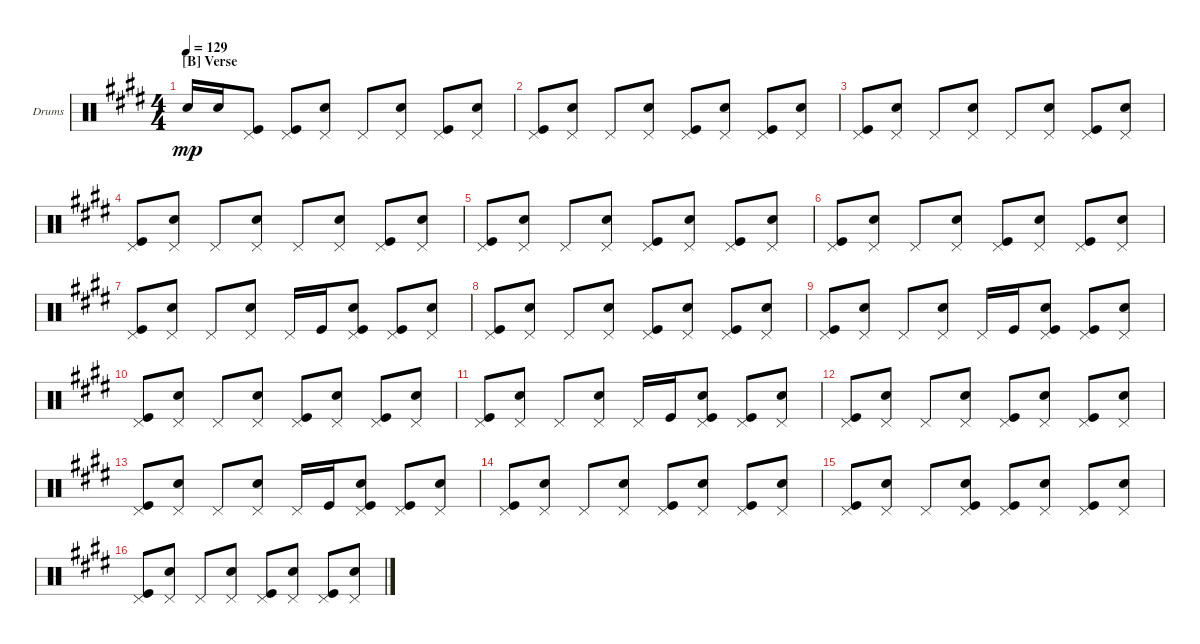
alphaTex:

\defaultSystemsLayout 4
\bracketExtendMode groupsimilarinstruments
\firstSystemTrackNameOrientation horizontal
\otherSystemsTrackNameOrientation horizontal
\chordDiagramsInScore
\track ("Drumkit" "Drums") {instrument percussion}
\staff {score}
\articulation defaults
\ts (4 4)
\section ("B" "Verse")
\tempo 129
\clef neutral
\ks c#minor "Snare (hit) 2".16{dy mp} "Snare (hit) 2".16
("Kick (hit)" "Pedal Hi-Hat (hit)").8 ("Kick (hit)" "Pedal Hi-Hat (hit)").8 ("Snare (hit) 2" "Pedal Hi-Hat (hit)").8 "Pedal Hi-Hat (hit)".8 ("Snare (hit) 2" "Pedal Hi-Hat (hit)").8 ("Kick (hit)" "Pedal Hi-Hat (hit)").8 ("Snare (hit) 2" "Pedal Hi-Hat (hit)").8 |
("Kick (hit)" "Pedal Hi-Hat (hit)").8 ("Pedal Hi-Hat (hit)" "Snare (hit) 2").8 "Pedal Hi-Hat (hit)".8 ("Pedal Hi-Hat (hit)" "Snare (hit) 2").8 ("Pedal Hi-Hat (hit)" "Kick (hit)").8 ("Pedal Hi-Hat (hit)" "Snare (hit) 2").8 ("Pedal Hi-Hat (hit)" "Kick (hit)").8 ("Pedal Hi-Hat (hit)" "Snare (hit) 2").8 |
("Kick (hit)" "Pedal Hi-Hat (hit)").8 ("Pedal Hi-Hat (hit)" "Snare (hit) 2").8 "Pedal Hi-Hat (hit)".8 ("Pedal Hi-Hat (hit)" "Snare (hit) 2").8 "Pedal Hi-Hat (hit)".8 ("Pedal Hi-Hat (hit)" "Snare (hit) 2").8 ("Pedal Hi-Hat (hit)" "Kick (hit)").8 ("Pedal Hi-Hat (hit)" "Snare (hit) 2").8 |
("Kick (hit)" "Pedal Hi-Hat (hit)").8 ("Pedal Hi-Hat (hit)" "Snare (hit) 2").8 "Pedal Hi-Hat (hit)".8 ("Pedal Hi-Hat (hit)" "Snare (hit) 2").8 "Pedal Hi-Hat (hit)".8 ("Pedal Hi-Hat (hit)" "Snare (hit) 2").8 ("Pedal Hi-Hat (hit)" "Kick (hit)").8 ("Pedal Hi-Hat (hit)" "Snare (hit) 2").8 |
("Kick (hit)" "Pedal Hi-Hat (hit)").8 ("Pedal Hi-Hat (hit)" "Snare (hit) 2").8 "Pedal Hi-Hat (hit)".8 ("Pedal Hi-Hat (hit)" "Snare (hit) 2").8 ("Pedal Hi-Hat (hit)" "Kick (hit)").8 ("Pedal Hi-Hat (hit)" "Snare (hit) 2").8 ("Pedal Hi-Hat (hit)" "Kick (hit)").8 ("Pedal Hi-Hat (hit)" "Snare (hit) 2").8 |
("Kick (hit)" "Pedal Hi-Hat (hit)").8 ("Pedal Hi-Hat (hit)" "Snare (hit) 2").8 "Pedal Hi-Hat (hit)".8 ("Pedal Hi-Hat (hit)" "Snare (hit) 2").8 ("Pedal Hi-Hat (hit)" "Kick (hit)").8 ("Pedal Hi-Hat (hit)" "Snare (hit) 2").8 ("Pedal Hi-Hat (hit)" "Kick (hit)").8 ("Pedal Hi-Hat (hit)" "Snare (hit) 2").8 |
("Kick (hit)" "Pedal Hi-Hat (hit)").8 ("Pedal Hi-Hat (hit)" "Snare (hit) 2").8 "Pedal Hi-Hat (hit)".8 ("Pedal Hi-Hat (hit)" "Snare (hit) 2").8 "Pedal Hi-Hat (hit)".16 "Kick (hit)".16 ("Pedal Hi-Hat (hit)" "Snare (hit) 2" "Kick (hit)").8 ("Pedal Hi-Hat (hit)" "Kick (hit)").8 ("Pedal Hi-Hat (hit)" "Snare (hit) 2").8 |
("Kick (hit)" "Pedal Hi-Hat (hit)").8 ("Pedal Hi-Hat (hit)" "Snare (hit) 2").8 "Pedal Hi-Hat (hit)".8 ("Pedal Hi-Hat (hit)" "Snare (hit) 2").8 ("Pedal Hi-Hat (hit)" "Kick (hit)").8 ("Pedal Hi-Hat (hit)" "Snare (hit) 2").8 ("Pedal Hi-Hat (hit)" "Kick (hit)").8 ("Pedal Hi-Hat (hit)" "Snare (hit) 2").8 |
("Kick (hit)" "Pedal Hi-Hat (hit)").8 ("Pedal Hi-Hat (hit)" "Snare (hit) 2").8 "Pedal Hi-Hat (hit)".8 ("Pedal Hi-Hat (hit)" "Snare (hit) 2").8 "Pedal Hi-Hat (hit)".16 "Kick (hit)".16 ("Pedal Hi-Hat (hit)" "Snare (hit) 2" "Kick (hit)").8 ("Pedal Hi-Hat (hit)" "Kick (hit)").8 ("Pedal Hi-Hat (hit)" "Snare (hit) 2").8 |
("Kick (hit)" "Pedal Hi-Hat (hit)").8 ("Pedal Hi-Hat (hit)" "Snare (hit) 2").8 "Pedal Hi-Hat (hit)".8 ("Pedal Hi-Hat (hit)" "Snare (hit) 2").8 ("Pedal Hi-Hat (hit)" "Kick (hit)").8 ("Pedal Hi-Hat (hit)" "Snare (hit) 2").8 ("Pedal Hi-Hat (hit)" "Kick (hit)").8 ("Pedal Hi-Hat (hit)" "Snare (hit) 2").8 |
("Kick (hit)" "Pedal Hi-Hat (hit)").8 ("Pedal Hi-Hat (hit)" "Snare (hit) 2").8 "Pedal Hi-Hat (hit)".8 ("Pedal Hi-Hat (hit)" "Snare (hit) 2").8 "Pedal Hi-Hat (hit)".16 "Kick (hit)".16 ("Pedal Hi-Hat (hit)" "Snare (hit) 2" "Kick (hit)").8 ("Pedal Hi-Hat (hit)" "Kick (hit)").8 ("Pedal Hi-Hat (hit)" "Snare (hit) 2").8 |
("Kick (hit)" "Pedal Hi-Hat (hit)").8 ("Pedal Hi-Hat (hit)" "Snare (hit) 2").8 "Pedal Hi-Hat (hit)".8 ("Pedal Hi-Hat (hit)" "Snare (hit) 2").8 ("Pedal Hi-Hat (hit)" "Kick (hit)").8 ("Pedal Hi-Hat (hit)" "Snare (hit) 2").8 ("Pedal Hi-Hat (hit)" "Kick (hit)").8 ("Pedal Hi-Hat (hit)" "Snare (hit) 2").8 |
("Kick (hit)" "Pedal Hi-Hat (hit)").8 ("Pedal Hi-Hat (hit)" "Snare (hit) 2").8 "Pedal Hi-Hat (hit)".8 ("Pedal Hi-Hat (hit)" "Snare (hit) 2").8 "Pedal Hi-Hat (hit)".16 "Kick (hit)".16 ("Pedal Hi-Hat (hit)" "Snare (hit) 2" "Kick (hit)").8 ("Pedal Hi-Hat (hit)" "Kick (hit)").8 ("Pedal Hi-Hat (hit)" "Snare (hit) 2").8 |
("Kick (hit)" "Pedal Hi-Hat (hit)").8 ("Pedal Hi-Hat (hit)" "Snare (hit) 2").8 "Pedal Hi-Hat (hit)".8 ("Pedal Hi-Hat (hit)" "Snare (hit) 2").8 ("Pedal Hi-Hat (hit)" "Kick (hit)").8 ("Pedal Hi-Hat (hit)" "Snare (hit) 2").8 ("Pedal Hi-Hat (hit)" "Kick (hit)").8 ("Pedal Hi-Hat (hit)" "Snare (hit) 2").8 |
("Kick (hit)" "Pedal Hi-Hat (hit)").8 ("Pedal Hi-Hat (hit)" "Snare (hit) 2").8 "Pedal Hi-Hat (hit)".8 ("Pedal Hi-Hat (hit)" "Snare (hit) 2" "Kick (hit)").8 ("Pedal Hi-Hat (hit)" "Kick (hit)").8 ("Pedal Hi-Hat (hit)" "Snare (hit) 2").8 ("Pedal Hi-Hat (hit)" "Kick (hit)").8 ("Pedal Hi-Hat (hit)" "Snare (hit) 2").8 |
("Kick (hit)" "Pedal Hi-Hat (hit)").8 ("Pedal Hi-Hat (hit)" "Snare (hit) 2").8 "Pedal Hi-Hat (hit)".8 ("Pedal Hi-Hat (hit)" "Snare (hit) 2").8 ("Pedal Hi-Hat (hit)" "Kick (hit)").8 ("Pedal Hi-Hat (hit)" "Snare (hit) 2").8 ("Pedal Hi-Hat (hit)" "Kick (hit)").8 ("Pedal Hi-Hat (hit)" "Snare (hit) 2").8
